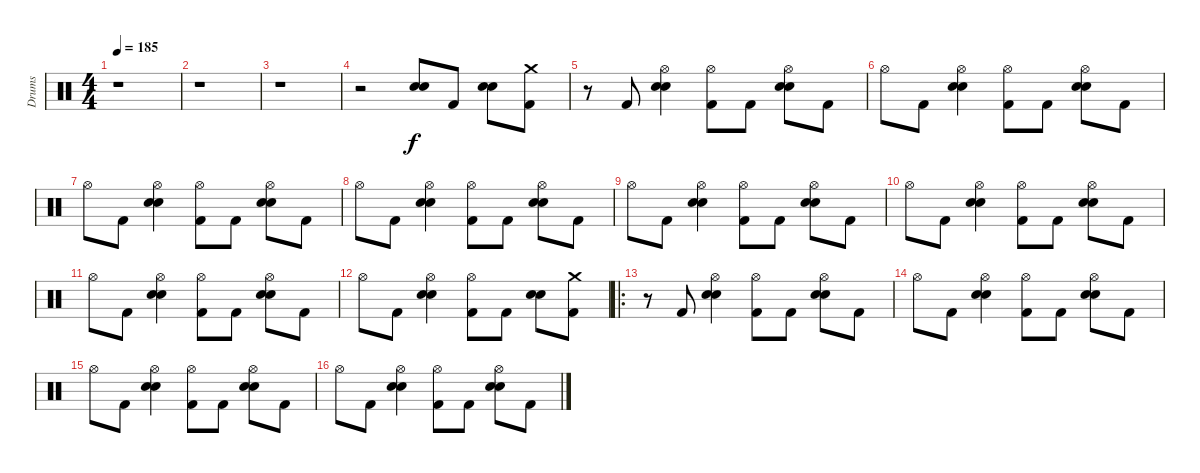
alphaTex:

\track ("Drums" "Drums") {instrument percussion}
\staff {score}
\articulation defaults
\ts (4 4)
\tempo 185
\clef neutral
\ks c
r.1{dy f} |
r.1 |
r.1 |
r.2 ("Electric Snare (hit)" "Snare (hit) 2").8 "Kick (hit) 2".8 ("Electric Snare (hit)" "Snare (hit) 2").8 ("Crash medium (hit)" "Kick (hit) 2").8 |
r.8 "Kick (hit) 2".8 ("Hi-Hat (open)" "Electric Snare (hit)" "Snare (hit) 2").4 ("Hi-Hat (open)" "Kick (hit) 2").8 "Kick (hit) 2".8 ("Hi-Hat (open)" "Electric Snare (hit)" "Snare (hit) 2").8 "Kick (hit) 2".8 |
"Hi-Hat (open)".8 "Kick (hit) 2".8 ("Hi-Hat (open)" "Electric Snare (hit)" "Snare (hit) 2").4 ("Hi-Hat (open)" "Kick (hit) 2").8 "Kick (hit) 2".8 ("Hi-Hat (open)" "Electric Snare (hit)" "Snare (hit) 2").8 "Kick (hit) 2".8 |
"Hi-Hat (open)".8 "Kick (hit) 2".8 ("Hi-Hat (open)" "Electric Snare (hit)" "Snare (hit) 2").4 ("Hi-Hat (open)" "Kick (hit) 2").8 "Kick (hit) 2".8 ("Hi-Hat (open)" "Electric Snare (hit)" "Snare (hit) 2").8 "Kick (hit) 2".8 |
"Hi-Hat (open)".8 "Kick (hit) 2".8 ("Hi-Hat (open)" "Electric Snare (hit)" "Snare (hit) 2").4 ("Hi-Hat (open)" "Kick (hit) 2").8 "Kick (hit) 2".8 ("Hi-Hat (open)" "Electric Snare (hit)" "Snare (hit) 2").8 "Kick (hit) 2".8 |
"Hi-Hat (open)".8 "Kick (hit) 2".8 ("Hi-Hat (open)" "Electric Snare (hit)" "Snare (hit) 2").4 ("Hi-Hat (open)" "Kick (hit) 2").8 "Kick (hit) 2".8 ("Hi-Hat (open)" "Electric Snare (hit)" "Snare (hit) 2").8 "Kick (hit) 2".8 |
"Hi-Hat (open)".8 "Kick (hit) 2".8 ("Hi-Hat (open)" "Electric Snare (hit)" "Snare (hit) 2").4 ("Hi-Hat (open)" "Kick (hit) 2").8 "Kick (hit) 2".8 ("Hi-Hat (open)" "Electric Snare (hit)" "Snare (hit) 2").8 "Kick (hit) 2".8 |
"Hi-Hat (open)".8 "Kick (hit) 2".8 ("Hi-Hat (open)" "Electric Snare (hit)" "Snare (hit) 2").4 ("Hi-Hat (open)" "Kick (hit) 2").8 "Kick (hit) 2".8 ("Hi-Hat (open)" "Electric Snare (hit)" "Snare (hit) 2").8 "Kick (hit) 2".8 |
"Hi-Hat (open)".8 "Kick (hit) 2".8 ("Hi-Hat (open)" "Electric Snare (hit)" "Snare (hit) 2").4 ("Hi-Hat (open)" "Kick (hit) 2").8 "Kick (hit) 2".8 ("Electric Snare (hit)" "Snare (hit) 2").8 ("Crash medium (hit)" "Kick (hit) 2").8 |
\ro
r.8 "Kick (hit) 2".8 ("Hi-Hat (open)" "Electric Snare (hit)" "Snare (hit) 2").4 ("Hi-Hat (open)" "Kick (hit) 2").8 "Kick (hit) 2".8 ("Hi-Hat (open)" "Electric Snare (hit)" "Snare (hit) 2").8 "Kick (hit) 2".8 |
"Hi-Hat (open)".8 "Kick (hit) 2".8 ("Hi-Hat (open)" "Electric Snare (hit)" "Snare (hit) 2").4 ("Hi-Hat (open)" "Kick (hit) 2").8 "Kick (hit) 2".8 ("Hi-Hat (open)" "Electric Snare (hit)" "Snare (hit) 2").8 "Kick (hit) 2".8 |
"Hi-Hat (open)".8 "Kick (hit) 2".8 ("Hi-Hat (open)" "Electric Snare (hit)" "Snare (hit) 2").4 ("Hi-Hat (open)" "Kick (hit) 2").8 "Kick (hit) 2".8 ("Hi-Hat (open)" "Electric Snare (hit)" "Snare (hit) 2").8 "Kick (hit) 2".8 |
"Hi-Hat (open)".8 "Kick (hit) 2".8 ("Hi-Hat (open)" "Electric Snare (hit)" "Snare (hit) 2").4 ("Hi-Hat (open)" "Kick (hit) 2").8 "Kick (hit) 2".8 ("Hi-Hat (open)" "Electric Snare (hit)" "Snare (hit) 2").8 "Kick (hit) 2".8
